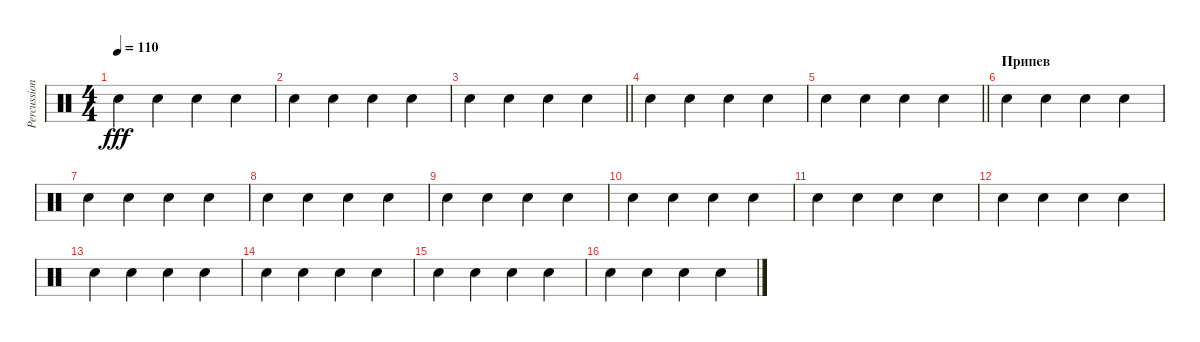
\track ("Percussion" "Percussion") {mute instrument percussion}
\staff {score}
\articulation defaults
\ts (4 4)
\tempo 110
\clef neutral
\ks c "Snare (hit) 2".4{dy fff} "Snare (hit) 2".4 "Snare (hit) 2".4 "Snare (hit) 2".4
|
"Snare (hit) 2".4 "Snare (hit) 2".4 "Snare (hit) 2".4 "Snare (hit) 2".4 |
\barLineRight lightlight "Snare (hit) 2".4 "Snare (hit) 2".4 "Snare (hit) 2".4 "Snare (hit) 2".4
|
"Snare (hit) 2".4 "Snare (hit) 2".4 "Snare (hit) 2".4 "Snare (hit) 2".4 |
\barLineRight lightlight "Snare (hit) 2".4 "Snare (hit) 2".4 "Snare (hit) 2".4 "Snare (hit) 2".4
|
\section ("" "Припев")
"Snare (hit) 2".4 "Snare (hit) 2".4 "Snare (hit) 2".4 "Snare (hit) 2".4 |
"Snare (hit) 2".4 "Snare (hit) 2".4 "Snare (hit) 2".4 "Snare (hit) 2".4 |
"Snare (hit) 2".4 "Snare (hit) 2".4 "Snare (hit) 2".4 "Snare (hit) 2".4 |
"Snare (hit) 2".4 "Snare (hit) 2".4 "Snare (hit) 2".4 "Snare (hit) 2".4 |
"Snare (hit) 2".4 "Snare (hit) 2".4 "Snare (hit) 2".4 "Snare (hit) 2".4 |
"Snare (hit) 2".4 "Snare (hit) 2".4 "Snare (hit) 2".4 "Snare (hit) 2".4 |
"Snare (hit) 2".4 "Snare (hit) 2".4 "Snare (hit) 2".4 "Snare (hit) 2".4 |
"Snare (hit) 2".4 "Snare (hit) 2".4 "Snare (hit) 2".4 "Snare (hit) 2".4 |
"Snare (hit) 2".4 "Snare (hit) 2".4 "Snare (hit) 2".4 "Snare (hit) 2".4 |
"Snare (hit) 2".4 "Snare (hit) 2".4 "Snare (hit) 2".4 "Snare (hit) 2".4 |
"Snare (hit) 2".4 "Snare (hit) 2".4 "Snare (hit) 2".4 "Snare (hit) 2".4
